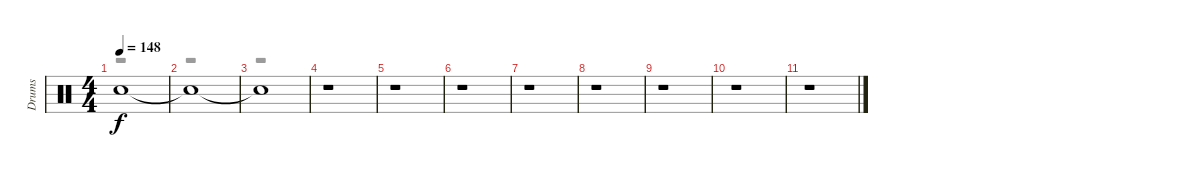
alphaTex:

\track ("Drums" "Drums") {instrument percussion}
\staff {score}
\articulation defaults
\voice
\ts (4 4)
\tempo 148
\clef neutral
\ks c "Snare (hit)"{t}.1{dy f}
|
"Snare (hit)"{t}.1 |
"Snare (hit)"{t}.1 |
r.1 |
r.1 |
r.1 |
r.1 |
r.1 |
r.1 |
r.1 |
r.1
\voice
\clef neutral
\ottava regular
\simile none
\ks c
r.1{dy fff} |
r.1 |
r.1 |
r.1 |
r.1 |
r.1 |
r.1 |
r.1 |
r.1 |
r.1 |
r.1
